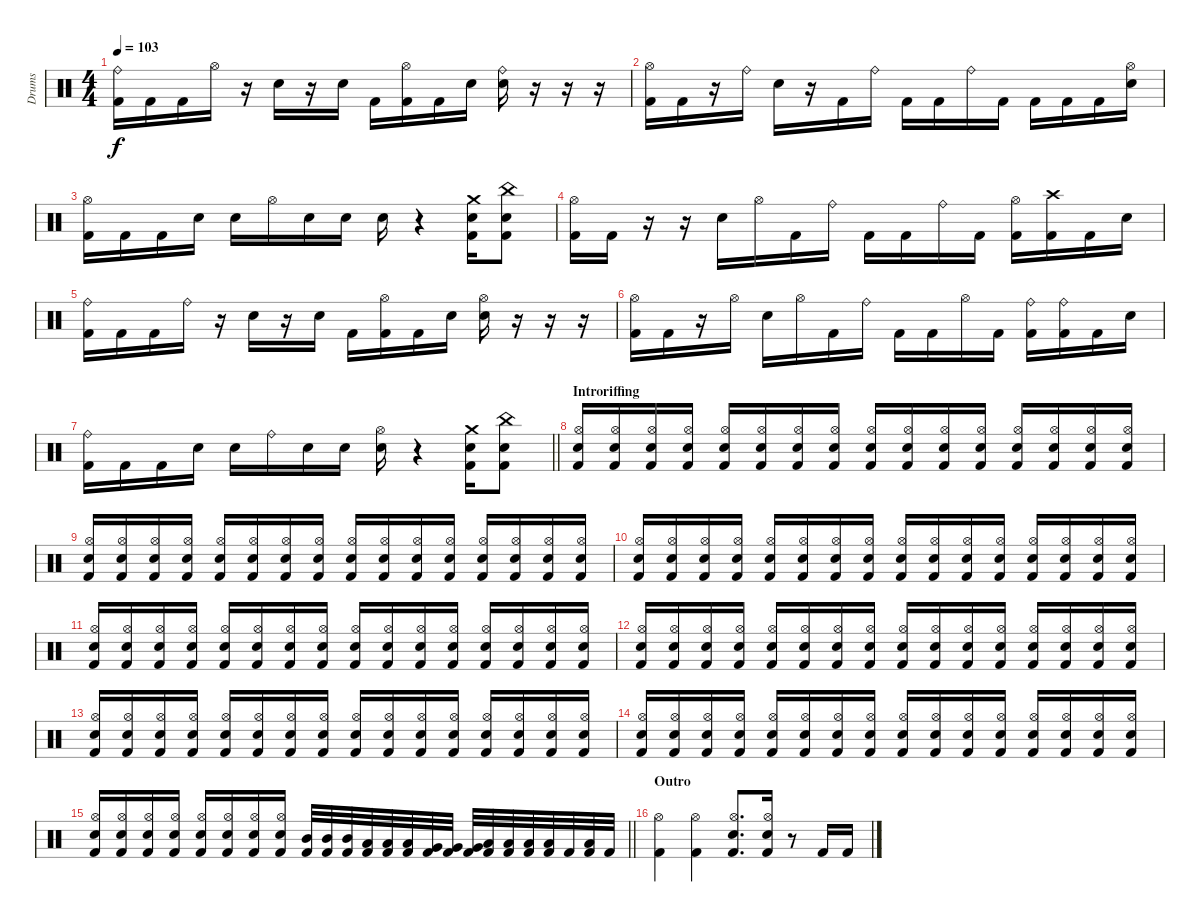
\track ("Drums" "Drums") {instrument percussion}
\staff {score}
\articulation defaults
\ts (4 4)
\tempo 103
\clef neutral
\ks c
("Ride (bell)" "Kick (hit) 2").16{dy f} "Kick (hit) 2".16 "Kick (hit) 2".16 "Hi-Hat (open)".16 r.16 "Electric Snare (hit)".16 r.16 "Electric Snare (hit)".16 "Kick (hit) 2".16 ("Hi-Hat (open)" "Kick (hit) 2").16 "Kick (hit) 2".16 "Electric Snare (hit)".16 ("Ride (bell)" "Electric Snare (hit)").16 r.16 r.16 r.16 |
("Hi-Hat (open)" "Kick (hit) 2").16 "Kick (hit) 2".16 r.16 "Ride (bell)".16 "Electric Snare (hit)".16 r.16 "Kick (hit) 2".16 "Ride (bell)".16 "Kick (hit) 2".16 "Kick (hit) 2".16 "Ride (bell)".16 "Kick (hit) 2".16 "Kick (hit) 2".16 "Kick (hit) 2".16 "Kick (hit) 2".16 ("Hi-Hat (open)" "Electric Snare (hit)").16 |
("Hi-Hat (open)" "Kick (hit) 2").16 "Kick (hit) 2".16 "Kick (hit) 2".16 "Electric Snare (hit)".16 "Electric Snare (hit)".16 "Hi-Hat (open)".16 "Electric Snare (hit)".16 "Electric Snare (hit)".16 "Electric Snare (hit)".16 r.4 ("Crash medium (hit)" "Electric Snare (hit)" "Kick (hit) 2").16 ("China (hit)" "Electric Snare (hit)" "Kick (hit) 2").8 |
("Hi-Hat (open)" "Kick (hit) 2").16 "Kick (hit) 2".16 r.16 r.16 "Electric Snare (hit)".16 "Hi-Hat (open)".16 "Kick (hit) 2".16 "Ride (bell)".16 "Kick (hit) 2".16 "Kick (hit) 2".16 "Ride (bell)".16 "Kick (hit) 2".16 ("Hi-Hat (open)" "Kick (hit) 2").16 ("Crash high (hit)" "Kick (hit) 2").16 "Kick (hit) 2".16 "Electric Snare (hit)".16 |
("Ride (bell)" "Kick (hit) 2").16 "Kick (hit) 2".16 "Kick (hit) 2".16 "Ride (bell)".16 r.16 "Electric Snare (hit)".16 r.16 "Electric Snare (hit)".16 "Kick (hit) 2".16 ("Hi-Hat (open)" "Kick (hit) 2").16 "Kick (hit) 2".16 "Electric Snare (hit)".16 ("Hi-Hat (open)" "Electric Snare (hit)").16 r.16 r.16 r.16 |
("Hi-Hat (open)" "Kick (hit) 2").16 "Kick (hit) 2".16 r.16 "Hi-Hat (open)".16 "Electric Snare (hit)".16 "Hi-Hat (open)".16 "Kick (hit) 2".16 "Ride (bell)".16 "Kick (hit) 2".16 "Kick (hit) 2".16 "Hi-Hat (open)".16 "Kick (hit) 2".16 ("Ride (bell)" "Kick (hit) 2").16 ("Ride (bell)" "Kick (hit) 2").16 "Kick (hit) 2".16 "Electric Snare (hit)".16 |
\barLineRight lightlight
("Ride (bell)" "Kick (hit) 2").16 "Kick (hit) 2".16 "Kick (hit) 2".16 "Electric Snare (hit)".16 "Electric Snare (hit)".16 "Ride (bell)".16 "Electric Snare (hit)".16 "Electric Snare (hit)".16 ("Hi-Hat (open)" "Electric Snare (hit)").16 r.4 ("Crash medium (hit)" "Electric Snare (hit)" "Kick (hit) 2").16 ("China (hit)" "Electric Snare (hit)" "Kick (hit) 2").8 |
\section ("" "Introriffing")
("Hi-Hat (open)" "Electric Snare (hit)" "Kick (hit) 2").16 ("Hi-Hat (open)" "Electric Snare (hit)" "Kick (hit) 2").16 ("Hi-Hat (open)" "Electric Snare (hit)" "Kick (hit) 2").16 ("Hi-Hat (open)" "Electric Snare (hit)" "Kick (hit) 2").16 ("Hi-Hat (open)" "Electric Snare (hit)" "Kick (hit) 2").16 ("Hi-Hat (open)" "Electric Snare (hit)" "Kick (hit) 2").16 ("Hi-Hat (open)" "Electric Snare (hit)" "Kick (hit) 2").16 ("Hi-Hat (open)" "Electric Snare (hit)" "Kick (hit) 2").16 ("Hi-Hat (open)" "Electric Snare (hit)" "Kick (hit) 2").16 ("Hi-Hat (open)" "Electric Snare (hit)" "Kick (hit) 2").16 ("Hi-Hat (open)" "Electric Snare (hit)" "Kick (hit) 2").16 ("Hi-Hat (open)" "Electric Snare (hit)" "Kick (hit) 2").16 ("Hi-Hat (open)" "Electric Snare (hit)" "Kick (hit) 2").16 ("Hi-Hat (open)" "Electric Snare (hit)" "Kick (hit) 2").16 ("Hi-Hat (open)" "Electric Snare (hit)" "Kick (hit) 2").16 ("Hi-Hat (open)" "Electric Snare (hit)" "Kick (hit) 2").16 |
("Hi-Hat (open)" "Electric Snare (hit)" "Kick (hit) 2").16 ("Hi-Hat (open)" "Electric Snare (hit)" "Kick (hit) 2").16 ("Hi-Hat (open)" "Electric Snare (hit)" "Kick (hit) 2").16 ("Hi-Hat (open)" "Electric Snare (hit)" "Kick (hit) 2").16 ("Hi-Hat (open)" "Electric Snare (hit)" "Kick (hit) 2").16 ("Hi-Hat (open)" "Electric Snare (hit)" "Kick (hit) 2").16 ("Hi-Hat (open)" "Electric Snare (hit)" "Kick (hit) 2").16 ("Hi-Hat (open)" "Electric Snare (hit)" "Kick (hit) 2").16 ("Hi-Hat (open)" "Electric Snare (hit)" "Kick (hit) 2").16 ("Hi-Hat (open)" "Electric Snare (hit)" "Kick (hit) 2").16 ("Hi-Hat (open)" "Electric Snare (hit)" "Kick (hit) 2").16 ("Hi-Hat (open)" "Electric Snare (hit)" "Kick (hit) 2").16 ("Hi-Hat (open)" "Electric Snare (hit)" "Kick (hit) 2").16 ("Hi-Hat (open)" "Electric Snare (hit)" "Kick (hit) 2").16 ("Hi-Hat (open)" "Electric Snare (hit)" "Kick (hit) 2").16 ("Hi-Hat (open)" "Electric Snare (hit)" "Kick (hit) 2").16 |
("Hi-Hat (open)" "Electric Snare (hit)" "Kick (hit) 2").16 ("Hi-Hat (open)" "Electric Snare (hit)" "Kick (hit) 2").16 ("Hi-Hat (open)" "Electric Snare (hit)" "Kick (hit) 2").16 ("Hi-Hat (open)" "Electric Snare (hit)" "Kick (hit) 2").16 ("Hi-Hat (open)" "Electric Snare (hit)" "Kick (hit) 2").16 ("Hi-Hat (open)" "Electric Snare (hit)" "Kick (hit) 2").16 ("Hi-Hat (open)" "Electric Snare (hit)" "Kick (hit) 2").16 ("Hi-Hat (open)" "Electric Snare (hit)" "Kick (hit) 2").16 ("Hi-Hat (open)" "Electric Snare (hit)" "Kick (hit) 2").16 ("Hi-Hat (open)" "Electric Snare (hit)" "Kick (hit) 2").16 ("Hi-Hat (open)" "Electric Snare (hit)" "Kick (hit) 2").16 ("Hi-Hat (open)" "Electric Snare (hit)" "Kick (hit) 2").16 ("Hi-Hat (open)" "Electric Snare (hit)" "Kick (hit) 2").16 ("Hi-Hat (open)" "Electric Snare (hit)" "Kick (hit) 2").16 ("Hi-Hat (open)" "Electric Snare (hit)" "Kick (hit) 2").16 ("Hi-Hat (open)" "Electric Snare (hit)" "Kick (hit) 2").16 |
("Hi-Hat (open)" "Electric Snare (hit)" "Kick (hit) 2").16 ("Hi-Hat (open)" "Electric Snare (hit)" "Kick (hit) 2").16 ("Hi-Hat (open)" "Electric Snare (hit)" "Kick (hit) 2").16 ("Hi-Hat (open)" "Electric Snare (hit)" "Kick (hit) 2").16 ("Hi-Hat (open)" "Electric Snare (hit)" "Kick (hit) 2").16 ("Hi-Hat (open)" "Electric Snare (hit)" "Kick (hit) 2").16 ("Hi-Hat (open)" "Electric Snare (hit)" "Kick (hit) 2").16 ("Hi-Hat (open)" "Electric Snare (hit)" "Kick (hit) 2").16 ("Hi-Hat (open)" "Electric Snare (hit)" "Kick (hit) 2").16 ("Hi-Hat (open)" "Electric Snare (hit)" "Kick (hit) 2").16 ("Hi-Hat (open)" "Electric Snare (hit)" "Kick (hit) 2").16 ("Hi-Hat (open)" "Electric Snare (hit)" "Kick (hit) 2").16 ("Hi-Hat (open)" "Electric Snare (hit)" "Kick (hit) 2").16 ("Hi-Hat (open)" "Electric Snare (hit)" "Kick (hit) 2").16 ("Hi-Hat (open)" "Electric Snare (hit)" "Kick (hit) 2").16 ("Hi-Hat (open)" "Electric Snare (hit)" "Kick (hit) 2").16 |
("Hi-Hat (open)" "Electric Snare (hit)" "Kick (hit) 2").16 ("Hi-Hat (open)" "Electric Snare (hit)" "Kick (hit) 2").16 ("Hi-Hat (open)" "Electric Snare (hit)" "Kick (hit) 2").16 ("Hi-Hat (open)" "Electric Snare (hit)" "Kick (hit) 2").16 ("Hi-Hat (open)" "Electric Snare (hit)" "Kick (hit) 2").16 ("Hi-Hat (open)" "Electric Snare (hit)" "Kick (hit) 2").16 ("Hi-Hat (open)" "Electric Snare (hit)" "Kick (hit) 2").16 ("Hi-Hat (open)" "Electric Snare (hit)" "Kick (hit) 2").16 ("Hi-Hat (open)" "Electric Snare (hit)" "Kick (hit) 2").16 ("Hi-Hat (open)" "Electric Snare (hit)" "Kick (hit) 2").16 ("Hi-Hat (open)" "Electric Snare (hit)" "Kick (hit) 2").16 ("Hi-Hat (open)" "Electric Snare (hit)" "Kick (hit) 2").16 ("Hi-Hat (open)" "Electric Snare (hit)" "Kick (hit) 2").16 ("Hi-Hat (open)" "Electric Snare (hit)" "Kick (hit) 2").16 ("Hi-Hat (open)" "Electric Snare (hit)" "Kick (hit) 2").16 ("Hi-Hat (open)" "Electric Snare (hit)" "Kick (hit) 2").16 |
("Hi-Hat (open)" "Electric Snare (hit)" "Kick (hit) 2").16 ("Hi-Hat (open)" "Electric Snare (hit)" "Kick (hit) 2").16 ("Hi-Hat (open)" "Electric Snare (hit)" "Kick (hit) 2").16 ("Hi-Hat (open)" "Electric Snare (hit)" "Kick (hit) 2").16 ("Hi-Hat (open)" "Electric Snare (hit)" "Kick (hit) 2").16 ("Hi-Hat (open)" "Electric Snare (hit)" "Kick (hit) 2").16 ("Hi-Hat (open)" "Electric Snare (hit)" "Kick (hit) 2").16 ("Hi-Hat (open)" "Electric Snare (hit)" "Kick (hit) 2").16 ("Hi-Hat (open)" "Electric Snare (hit)" "Kick (hit) 2").16 ("Hi-Hat (open)" "Electric Snare (hit)" "Kick (hit) 2").16 ("Hi-Hat (open)" "Electric Snare (hit)" "Kick (hit) 2").16 ("Hi-Hat (open)" "Electric Snare (hit)" "Kick (hit) 2").16 ("Hi-Hat (open)" "Electric Snare (hit)" "Kick (hit) 2").16 ("Hi-Hat (open)" "Electric Snare (hit)" "Kick (hit) 2").16 ("Hi-Hat (open)" "Electric Snare (hit)" "Kick (hit) 2").16 ("Hi-Hat (open)" "Electric Snare (hit)" "Kick (hit) 2").16 |
("Hi-Hat (open)" "Electric Snare (hit)" "Kick (hit) 2").16 ("Hi-Hat (open)" "Electric Snare (hit)" "Kick (hit) 2").16 ("Hi-Hat (open)" "Electric Snare (hit)" "Kick (hit) 2").16 ("Hi-Hat (open)" "Electric Snare (hit)" "Kick (hit) 2").16 ("Hi-Hat (open)" "Electric Snare (hit)" "Kick (hit) 2").16 ("Hi-Hat (open)" "Electric Snare (hit)" "Kick (hit) 2").16 ("Hi-Hat (open)" "Electric Snare (hit)" "Kick (hit) 2").16 ("Hi-Hat (open)" "Electric Snare (hit)" "Kick (hit) 2").16 ("Hi-Hat (open)" "Electric Snare (hit)" "Kick (hit) 2").16 ("Hi-Hat (open)" "Electric Snare (hit)" "Kick (hit) 2").16 ("Hi-Hat (open)" "Electric Snare (hit)" "Kick (hit) 2").16 ("Hi-Hat (open)" "Electric Snare (hit)" "Kick (hit) 2").16 ("Hi-Hat (open)" "Electric Snare (hit)" "Kick (hit) 2").16 ("Hi-Hat (open)" "Electric Snare (hit)" "Kick (hit) 2").16 ("Hi-Hat (open)" "Electric Snare (hit)" "Kick (hit) 2").16 ("Hi-Hat (open)" "Electric Snare (hit)" "Kick (hit) 2").16 |
\barLineRight lightlight
("Hi-Hat (open)" "Electric Snare (hit)" "Kick (hit) 2").16 ("Hi-Hat (open)" "Electric Snare (hit)" "Kick (hit) 2").16 ("Hi-Hat (open)" "Electric Snare (hit)" "Kick (hit) 2").16 ("Hi-Hat (open)" "Electric Snare (hit)" "Kick (hit) 2").16 ("Hi-Hat (open)" "Electric Snare (hit)" "Kick (hit) 2").16 ("Hi-Hat (open)" "Electric Snare (hit)" "Kick (hit) 2").16 ("Hi-Hat (open)" "Electric Snare (hit)" "Kick (hit) 2").16 ("Hi-Hat (open)" "Electric Snare (hit)" "Kick (hit) 2").16 ("Mid Tom (hit)" "Kick (hit) 2").32 ("Mid Tom (hit)" "Kick (hit) 2").32 ("Mid Tom (hit)" "Kick (hit) 2").32 ("Low Tom (hit)" "Kick (hit) 2").32 ("Low Tom (hit)" "Kick (hit) 2").32 ("Low Tom (hit)" "Kick (hit) 2").32 ("Very Low Tom (hit)" "Kick (hit) 2").32 ("Very Low Tom (hit)" "Kick (hit) 2").32 ("Very Low Tom (hit)" "Kick (hit) 2").32 ("Low Floor Tom (hit)" "Kick (hit) 2").32 ("Low Floor Tom (hit)" "Kick (hit) 2").32 ("Low Floor Tom (hit)" "Kick (hit) 2").32 ("Low Floor Tom (hit)" "Kick (hit) 2").32 "Kick (hit) 2".32 ("Low Floor Tom (hit)" "Kick (hit) 2").32 "Kick (hit) 2".32 |
\section ("" "Outro")
("Hi-Hat (open)" "Kick (hit) 2").4 ("Hi-Hat (open)" "Kick (hit) 2").4 ("Hi-Hat (open)" "Electric Snare (hit)" "Kick (hit) 2").8{d} ("Hi-Hat (open)" "Electric Snare (hit)" "Kick (hit) 2").16 r.8 "Kick (hit) 2".16 "Kick (hit) 2".16
